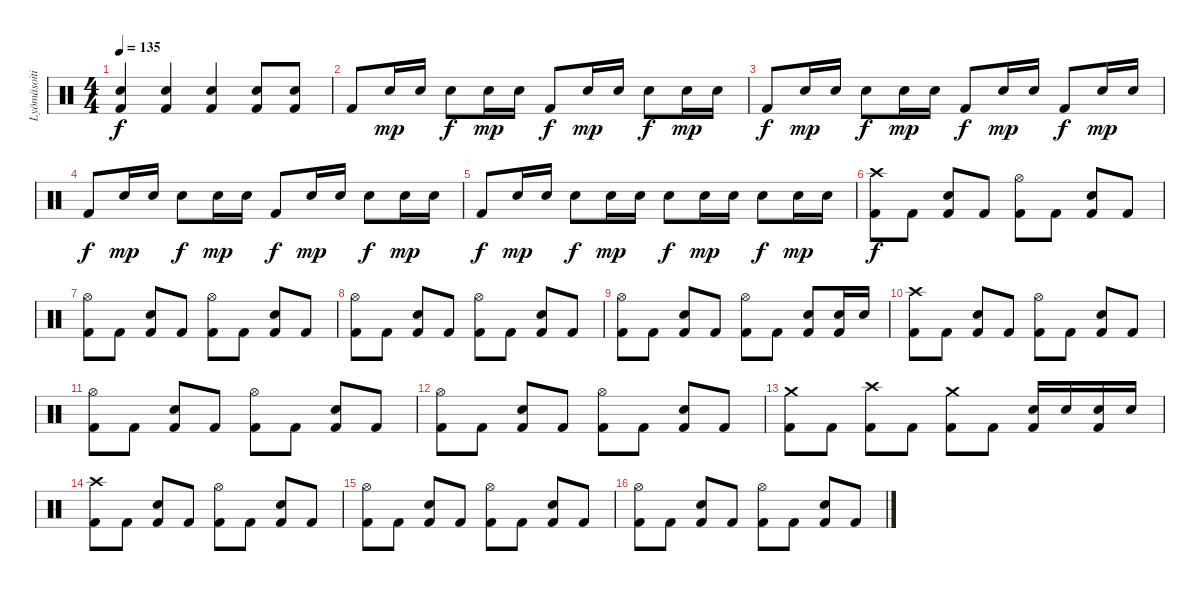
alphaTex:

\track ("Lyömäsoitin" "Lyömäsoiti") {instrument percussion}
\staff {score}
\articulation defaults
\ts (4 4)
\tempo 135
\clef neutral
\ks c
("Electric Snare (hit)" "Kick (hit) 2").4{dy f} ("Electric Snare (hit)" "Kick (hit) 2").4 ("Electric Snare (hit)" "Kick (hit) 2").4 ("Electric Snare (hit)" "Kick (hit) 2").8 ("Electric Snare (hit)" "Kick (hit) 2").8 |
"Kick (hit) 2".8 "Electric Snare (hit)".16{dy mp} "Electric Snare (hit)".16 "Electric Snare (hit)".8{dy f} "Electric Snare (hit)".16{dy mp} "Electric Snare (hit)".16 "Kick (hit) 2".8{dy f} "Electric Snare (hit)".16{dy mp} "Electric Snare (hit)".16 "Electric Snare (hit)".8{dy f} "Electric Snare (hit)".16{dy mp} "Electric Snare (hit)".16 |
"Kick (hit) 2".8{dy f} "Electric Snare (hit)".16{dy mp} "Electric Snare (hit)".16 "Electric Snare (hit)".8{dy f} "Electric Snare (hit)".16{dy mp} "Electric Snare (hit)".16 "Kick (hit) 2".8{dy f} "Electric Snare (hit)".16{dy mp} "Electric Snare (hit)".16 "Kick (hit) 2".8{dy f} "Electric Snare (hit)".16{dy mp} "Electric Snare (hit)".16 |
"Kick (hit) 2".8{dy f} "Electric Snare (hit)".16{dy mp} "Electric Snare (hit)".16 "Electric Snare (hit)".8{dy f} "Electric Snare (hit)".16{dy mp} "Electric Snare (hit)".16 "Kick (hit) 2".8{dy f} "Electric Snare (hit)".16{dy mp} "Electric Snare (hit)".16 "Electric Snare (hit)".8{dy f} "Electric Snare (hit)".16{dy mp} "Electric Snare (hit)".16 |
"Kick (hit) 2".8{dy f} "Electric Snare (hit)".16{dy mp} "Electric Snare (hit)".16 "Electric Snare (hit)".8{dy f} "Electric Snare (hit)".16{dy mp} "Electric Snare (hit)".16 "Electric Snare (hit)".8{dy f} "Electric Snare (hit)".16{dy mp} "Electric Snare (hit)".16 "Electric Snare (hit)".8{dy f} "Electric Snare (hit)".16{dy mp} "Electric Snare (hit)".16 |
("Crash high (hit)" "Kick (hit) 2").8{dy f} "Kick (hit) 2".8 ("Electric Snare (hit)" "Kick (hit) 2").8 "Kick (hit) 2".8 ("Hi-Hat (open)" "Kick (hit) 2").8 "Kick (hit) 2".8 ("Electric Snare (hit)" "Kick (hit) 2").8 "Kick (hit) 2".8 |
("Hi-Hat (open)" "Kick (hit) 2").8 "Kick (hit) 2".8 ("Electric Snare (hit)" "Kick (hit) 2").8 "Kick (hit) 2".8 ("Hi-Hat (open)" "Kick (hit) 2").8 "Kick (hit) 2".8 ("Electric Snare (hit)" "Kick (hit) 2").8 "Kick (hit) 2".8 |
("Hi-Hat (open)" "Kick (hit) 2").8 "Kick (hit) 2".8 ("Electric Snare (hit)" "Kick (hit) 2").8 "Kick (hit) 2".8 ("Hi-Hat (open)" "Kick (hit) 2").8 "Kick (hit) 2".8 ("Electric Snare (hit)" "Kick (hit) 2").8 "Kick (hit) 2".8 |
("Hi-Hat (open)" "Kick (hit) 2").8 "Kick (hit) 2".8 ("Electric Snare (hit)" "Kick (hit) 2").8 "Kick (hit) 2".8 ("Hi-Hat (open)" "Kick (hit) 2").8 "Kick (hit) 2".8 ("Electric Snare (hit)" "Kick (hit) 2").8 ("Electric Snare (hit)" "Kick (hit) 2").16 "Electric Snare (hit)".16 |
("Crash high (hit)" "Kick (hit) 2").8 "Kick (hit) 2".8 ("Electric Snare (hit)" "Kick (hit) 2").8 "Kick (hit) 2".8 ("Hi-Hat (open)" "Kick (hit) 2").8 "Kick (hit) 2".8 ("Electric Snare (hit)" "Kick (hit) 2").8 "Kick (hit) 2".8 |
("Hi-Hat (open)" "Kick (hit) 2").8 "Kick (hit) 2".8 ("Electric Snare (hit)" "Kick (hit) 2").8 "Kick (hit) 2".8 ("Hi-Hat (open)" "Kick (hit) 2").8 "Kick (hit) 2".8 ("Electric Snare (hit)" "Kick (hit) 2").8 "Kick (hit) 2".8 |
("Hi-Hat (open)" "Kick (hit) 2").8 "Kick (hit) 2".8 ("Electric Snare (hit)" "Kick (hit) 2").8 "Kick (hit) 2".8 ("Hi-Hat (open)" "Kick (hit) 2").8 "Kick (hit) 2".8 ("Electric Snare (hit)" "Kick (hit) 2").8 "Kick (hit) 2".8 |
("Crash medium (hit)" "Kick (hit) 2").8 "Kick (hit) 2".8 ("Crash high (hit)" "Kick (hit) 2").8 "Kick (hit) 2".8 ("Crash medium (hit)" "Kick (hit) 2").8 "Kick (hit) 2".8 ("Electric Snare (hit)" "Kick (hit) 2").16 "Electric Snare (hit)".16 ("Electric Snare (hit)" "Kick (hit) 2").16 "Electric Snare (hit)".16 |
("Crash high (hit)" "Kick (hit) 2").8 "Kick (hit) 2".8 ("Electric Snare (hit)" "Kick (hit) 2").8 "Kick (hit) 2".8 ("Hi-Hat (open)" "Kick (hit) 2").8 "Kick (hit) 2".8 ("Electric Snare (hit)" "Kick (hit) 2").8 "Kick (hit) 2".8 |
("Hi-Hat (open)" "Kick (hit) 2").8 "Kick (hit) 2".8 ("Electric Snare (hit)" "Kick (hit) 2").8 "Kick (hit) 2".8 ("Hi-Hat (open)" "Kick (hit) 2").8 "Kick (hit) 2".8 ("Electric Snare (hit)" "Kick (hit) 2").8 "Kick (hit) 2".8 |
("Hi-Hat (open)" "Kick (hit) 2").8 "Kick (hit) 2".8 ("Electric Snare (hit)" "Kick (hit) 2").8 "Kick (hit) 2".8 ("Hi-Hat (open)" "Kick (hit) 2").8 "Kick (hit) 2".8 ("Electric Snare (hit)" "Kick (hit) 2").8 "Kick (hit) 2".8
